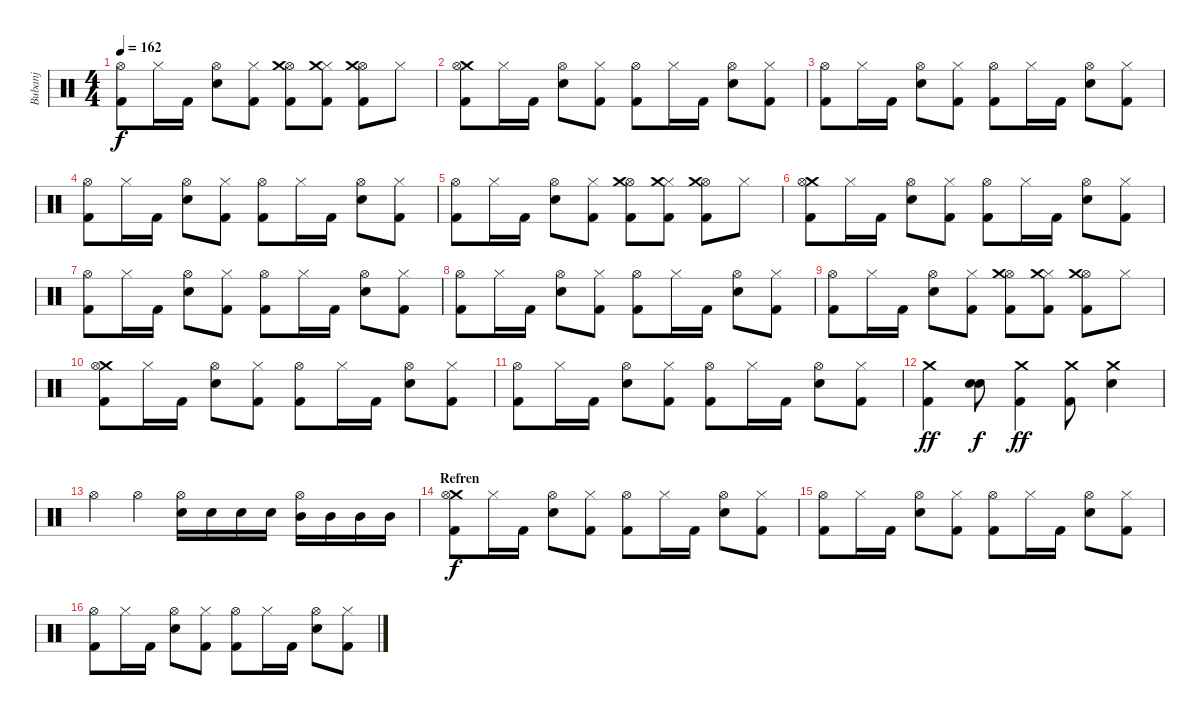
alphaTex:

\track ("Bubanj" "Bubanj") {instrument percussion}
\staff {score}
\articulation defaults
\ts (4 4)
\tempo 162
\clef neutral
\ks c
("Hi-Hat (open)" "Kick (hit) 2").8{dy f} "Hi-Hat (closed)".16 "Kick (hit) 2".16 ("Hi-Hat (open)" "Snare (hit) 2").8 ("Hi-Hat (closed)" "Kick (hit) 2").8 ("Hi-Hat (open)" "Kick (hit) 2" "Crash medium (hit)").8 ("Hi-Hat (closed)" "Kick (hit) 2" "Crash medium (hit)").8 ("Hi-Hat (open)" "Kick (hit) 2" "Crash medium (hit)").8 "Hi-Hat (closed)".8 |
("Crash medium (hit)" "Kick (hit) 2" "Hi-Hat (open)").8 "Hi-Hat (closed)".16 "Kick (hit) 2".16 ("Hi-Hat (open)" "Snare (hit) 2").8 ("Hi-Hat (closed)" "Kick (hit) 2").8 ("Hi-Hat (open)" "Kick (hit) 2").8 "Hi-Hat (closed)".16 "Kick (hit) 2".16 ("Hi-Hat (open)" "Snare (hit) 2").8 ("Hi-Hat (closed)" "Kick (hit) 2").8 |
("Hi-Hat (open)" "Kick (hit) 2").8 "Hi-Hat (closed)".16 "Kick (hit) 2".16 ("Hi-Hat (open)" "Snare (hit) 2").8 ("Hi-Hat (closed)" "Kick (hit) 2").8 ("Hi-Hat (open)" "Kick (hit) 2").8 "Hi-Hat (closed)".16 "Kick (hit) 2".16 ("Hi-Hat (open)" "Snare (hit) 2").8 ("Hi-Hat (closed)" "Kick (hit) 2").8 |
("Hi-Hat (open)" "Kick (hit) 2").8 "Hi-Hat (closed)".16 "Kick (hit) 2".16 ("Hi-Hat (open)" "Snare (hit) 2").8 ("Hi-Hat (closed)" "Kick (hit) 2").8 ("Hi-Hat (open)" "Kick (hit) 2").8 "Hi-Hat (closed)".16 "Kick (hit) 2".16 ("Hi-Hat (open)" "Snare (hit) 2").8 ("Hi-Hat (closed)" "Kick (hit) 2").8 |
("Hi-Hat (open)" "Kick (hit) 2").8 "Hi-Hat (closed)".16 "Kick (hit) 2".16 ("Hi-Hat (open)" "Snare (hit) 2").8 ("Hi-Hat (closed)" "Kick (hit) 2").8 ("Hi-Hat (open)" "Kick (hit) 2" "Crash medium (hit)").8 ("Hi-Hat (closed)" "Kick (hit) 2" "Crash medium (hit)").8 ("Hi-Hat (open)" "Kick (hit) 2" "Crash medium (hit)").8 "Hi-Hat (closed)".8 |
("Crash medium (hit)" "Kick (hit) 2" "Hi-Hat (open)").8 "Hi-Hat (closed)".16 "Kick (hit) 2".16 ("Hi-Hat (open)" "Snare (hit) 2").8 ("Hi-Hat (closed)" "Kick (hit) 2").8 ("Hi-Hat (open)" "Kick (hit) 2").8 "Hi-Hat (closed)".16 "Kick (hit) 2".16 ("Hi-Hat (open)" "Snare (hit) 2").8 ("Hi-Hat (closed)" "Kick (hit) 2").8 |
("Hi-Hat (open)" "Kick (hit) 2").8 "Hi-Hat (closed)".16 "Kick (hit) 2".16 ("Hi-Hat (open)" "Snare (hit) 2").8 ("Hi-Hat (closed)" "Kick (hit) 2").8 ("Hi-Hat (open)" "Kick (hit) 2").8 "Hi-Hat (closed)".16 "Kick (hit) 2".16 ("Hi-Hat (open)" "Snare (hit) 2").8 ("Hi-Hat (closed)" "Kick (hit) 2").8 |
("Hi-Hat (open)" "Kick (hit) 2").8 "Hi-Hat (closed)".16 "Kick (hit) 2".16 ("Hi-Hat (open)" "Snare (hit) 2").8 ("Hi-Hat (closed)" "Kick (hit) 2").8 ("Hi-Hat (open)" "Kick (hit) 2").8 "Hi-Hat (closed)".16 "Kick (hit) 2".16 ("Hi-Hat (open)" "Snare (hit) 2").8 ("Hi-Hat (closed)" "Kick (hit) 2").8 |
("Hi-Hat (open)" "Kick (hit) 2").8 "Hi-Hat (closed)".16 "Kick (hit) 2".16 ("Hi-Hat (open)" "Snare (hit) 2").8 ("Hi-Hat (closed)" "Kick (hit) 2").8 ("Hi-Hat (open)" "Kick (hit) 2" "Crash medium (hit)").8 ("Hi-Hat (closed)" "Kick (hit) 2" "Crash medium (hit)").8 ("Hi-Hat (open)" "Kick (hit) 2" "Crash medium (hit)").8 "Hi-Hat (closed)".8 |
("Crash medium (hit)" "Kick (hit) 2" "Hi-Hat (open)").8 "Hi-Hat (closed)".16 "Kick (hit) 2".16 ("Hi-Hat (open)" "Snare (hit) 2").8 ("Hi-Hat (closed)" "Kick (hit) 2").8 ("Hi-Hat (open)" "Kick (hit) 2").8 "Hi-Hat (closed)".16 "Kick (hit) 2".16 ("Hi-Hat (open)" "Snare (hit) 2").8 ("Hi-Hat (closed)" "Kick (hit) 2").8 |
("Hi-Hat (open)" "Kick (hit) 2").8 "Hi-Hat (closed)".16 "Kick (hit) 2".16 ("Hi-Hat (open)" "Snare (hit) 2").8 ("Hi-Hat (closed)" "Kick (hit) 2").8 ("Hi-Hat (open)" "Kick (hit) 2").8 "Hi-Hat (closed)".16 "Kick (hit) 2".16 ("Hi-Hat (open)" "Snare (hit) 2").8 ("Hi-Hat (closed)" "Kick (hit) 2").8 |
("Crash medium (hit)" "Kick (hit) 2").4{dy ff} ("Snare (hit) 2" "Snare (hit) 2").8{dy f} ("Crash medium (hit)" "Kick (hit) 2").4{dy ff} ("Crash medium (hit)" "Kick (hit) 2").8 ("Crash medium (hit)" "Snare (hit) 2").4 |
"Hi-Hat (open)".4 "Hi-Hat (open)".4 ("Snare (hit) 2" "Hi-Hat (open)").16 "Snare (hit) 2".16 "Snare (hit) 2".16 "Snare (hit) 2".16 ("Mid Tom (hit)" "Hi-Hat (open)").16 "Mid Tom (hit)".16 "Mid Tom (hit)".16 "Mid Tom (hit)".16 |
\section ("" "Refren")
("Crash medium (hit)" "Kick (hit) 2" "Hi-Hat (open)").8{dy f} "Hi-Hat (closed)".16 "Kick (hit) 2".16 ("Hi-Hat (open)" "Snare (hit) 2").8 ("Hi-Hat (closed)" "Kick (hit) 2").8 ("Hi-Hat (open)" "Kick (hit) 2").8 "Hi-Hat (closed)".16 "Kick (hit) 2".16 ("Hi-Hat (open)" "Snare (hit) 2").8 ("Hi-Hat (closed)" "Kick (hit) 2").8 |
("Hi-Hat (open)" "Kick (hit) 2").8 "Hi-Hat (closed)".16 "Kick (hit) 2".16 ("Hi-Hat (open)" "Snare (hit) 2").8 ("Hi-Hat (closed)" "Kick (hit) 2").8 ("Hi-Hat (open)" "Kick (hit) 2").8 "Hi-Hat (closed)".16 "Kick (hit) 2".16 ("Hi-Hat (open)" "Snare (hit) 2").8 ("Hi-Hat (closed)" "Kick (hit) 2").8 |
("Hi-Hat (open)" "Kick (hit) 2").8 "Hi-Hat (closed)".16 "Kick (hit) 2".16 ("Hi-Hat (open)" "Snare (hit) 2").8 ("Hi-Hat (closed)" "Kick (hit) 2").8 ("Hi-Hat (open)" "Kick (hit) 2").8 "Hi-Hat (closed)".16 "Kick (hit) 2".16 ("Hi-Hat (open)" "Snare (hit) 2").8 ("Hi-Hat (closed)" "Kick (hit) 2").8
